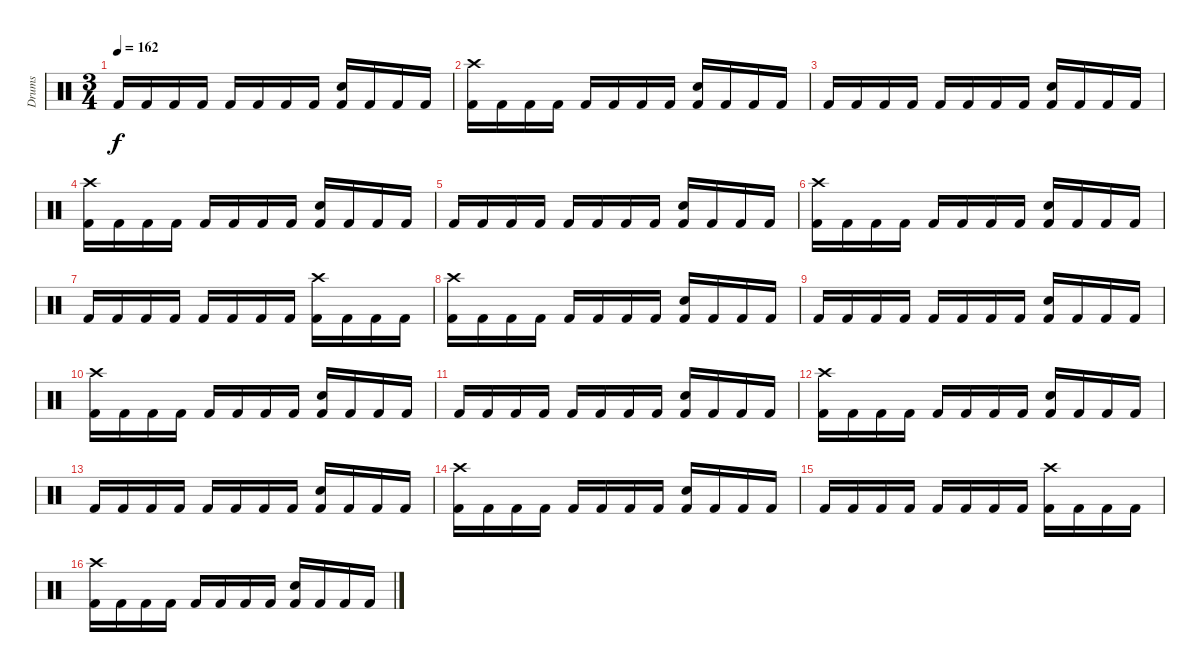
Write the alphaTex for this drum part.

\track ("Drums" "Drums") {instrument percussion}
\staff {score}
\articulation defaults
\ts (3 4)
\tempo 162
\clef neutral
\ks c "Kick (hit) 2".16{dy f} "Kick (hit) 2".16 "Kick (hit) 2".16 "Kick (hit) 2".16 "Kick (hit) 2".16 "Kick (hit) 2".16 "Kick (hit) 2".16 "Kick (hit) 2".16
("Snare (hit) 2" "Kick (hit) 2").16 "Kick (hit) 2".16 "Kick (hit) 2".16 "Kick (hit) 2".16 |
("Crash high (hit)" "Kick (hit) 2").16 "Kick (hit) 2".16 "Kick (hit) 2".16 "Kick (hit) 2".16 "Kick (hit) 2".16 "Kick (hit) 2".16 "Kick (hit) 2".16 "Kick (hit) 2".16 ("Snare (hit) 2" "Kick (hit) 2").16 "Kick (hit) 2".16 "Kick (hit) 2".16 "Kick (hit) 2".16 |
"Kick (hit) 2".16 "Kick (hit) 2".16 "Kick (hit) 2".16 "Kick (hit) 2".16 "Kick (hit) 2".16 "Kick (hit) 2".16 "Kick (hit) 2".16 "Kick (hit) 2".16 ("Snare (hit) 2" "Kick (hit) 2").16 "Kick (hit) 2".16 "Kick (hit) 2".16 "Kick (hit) 2".16 |
("Crash high (hit)" "Kick (hit) 2").16 "Kick (hit) 2".16 "Kick (hit) 2".16 "Kick (hit) 2".16 "Kick (hit) 2".16 "Kick (hit) 2".16 "Kick (hit) 2".16 "Kick (hit) 2".16 ("Snare (hit) 2" "Kick (hit) 2").16 "Kick (hit) 2".16 "Kick (hit) 2".16 "Kick (hit) 2".16 |
"Kick (hit) 2".16 "Kick (hit) 2".16 "Kick (hit) 2".16 "Kick (hit) 2".16 "Kick (hit) 2".16 "Kick (hit) 2".16 "Kick (hit) 2".16 "Kick (hit) 2".16 ("Snare (hit) 2" "Kick (hit) 2").16 "Kick (hit) 2".16 "Kick (hit) 2".16 "Kick (hit) 2".16 |
("Crash high (hit)" "Kick (hit) 2").16 "Kick (hit) 2".16 "Kick (hit) 2".16 "Kick (hit) 2".16 "Kick (hit) 2".16 "Kick (hit) 2".16 "Kick (hit) 2".16 "Kick (hit) 2".16 ("Snare (hit) 2" "Kick (hit) 2").16 "Kick (hit) 2".16 "Kick (hit) 2".16 "Kick (hit) 2".16 |
"Kick (hit) 2".16 "Kick (hit) 2".16 "Kick (hit) 2".16 "Kick (hit) 2".16 "Kick (hit) 2".16 "Kick (hit) 2".16 "Kick (hit) 2".16 "Kick (hit) 2".16 ("Crash high (hit)" "Kick (hit) 2").16 "Kick (hit) 2".16 "Kick (hit) 2".16 "Kick (hit) 2".16 |
("Crash high (hit)" "Kick (hit) 2").16 "Kick (hit) 2".16 "Kick (hit) 2".16 "Kick (hit) 2".16 "Kick (hit) 2".16 "Kick (hit) 2".16 "Kick (hit) 2".16 "Kick (hit) 2".16 ("Snare (hit) 2" "Kick (hit) 2").16 "Kick (hit) 2".16 "Kick (hit) 2".16 "Kick (hit) 2".16 |
"Kick (hit) 2".16 "Kick (hit) 2".16 "Kick (hit) 2".16 "Kick (hit) 2".16 "Kick (hit) 2".16 "Kick (hit) 2".16 "Kick (hit) 2".16 "Kick (hit) 2".16 ("Snare (hit) 2" "Kick (hit) 2").16 "Kick (hit) 2".16 "Kick (hit) 2".16 "Kick (hit) 2".16 |
("Crash high (hit)" "Kick (hit) 2").16 "Kick (hit) 2".16 "Kick (hit) 2".16 "Kick (hit) 2".16 "Kick (hit) 2".16 "Kick (hit) 2".16 "Kick (hit) 2".16 "Kick (hit) 2".16 ("Snare (hit) 2" "Kick (hit) 2").16 "Kick (hit) 2".16 "Kick (hit) 2".16 "Kick (hit) 2".16 |
"Kick (hit) 2".16 "Kick (hit) 2".16 "Kick (hit) 2".16 "Kick (hit) 2".16 "Kick (hit) 2".16 "Kick (hit) 2".16 "Kick (hit) 2".16 "Kick (hit) 2".16 ("Snare (hit) 2" "Kick (hit) 2").16 "Kick (hit) 2".16 "Kick (hit) 2".16 "Kick (hit) 2".16 |
("Crash high (hit)" "Kick (hit) 2").16 "Kick (hit) 2".16 "Kick (hit) 2".16 "Kick (hit) 2".16 "Kick (hit) 2".16 "Kick (hit) 2".16 "Kick (hit) 2".16 "Kick (hit) 2".16 ("Snare (hit) 2" "Kick (hit) 2").16 "Kick (hit) 2".16 "Kick (hit) 2".16 "Kick (hit) 2".16 |
"Kick (hit) 2".16 "Kick (hit) 2".16 "Kick (hit) 2".16 "Kick (hit) 2".16 "Kick (hit) 2".16 "Kick (hit) 2".16 "Kick (hit) 2".16 "Kick (hit) 2".16 ("Snare (hit) 2" "Kick (hit) 2").16 "Kick (hit) 2".16 "Kick (hit) 2".16 "Kick (hit) 2".16 |
("Crash high (hit)" "Kick (hit) 2").16 "Kick (hit) 2".16 "Kick (hit) 2".16 "Kick (hit) 2".16 "Kick (hit) 2".16 "Kick (hit) 2".16 "Kick (hit) 2".16 "Kick (hit) 2".16 ("Snare (hit) 2" "Kick (hit) 2").16 "Kick (hit) 2".16 "Kick (hit) 2".16 "Kick (hit) 2".16 |
"Kick (hit) 2".16 "Kick (hit) 2".16 "Kick (hit) 2".16 "Kick (hit) 2".16 "Kick (hit) 2".16 "Kick (hit) 2".16 "Kick (hit) 2".16 "Kick (hit) 2".16 ("Crash high (hit)" "Kick (hit) 2").16 "Kick (hit) 2".16 "Kick (hit) 2".16 "Kick (hit) 2".16 |
("Crash high (hit)" "Kick (hit) 2").16 "Kick (hit) 2".16 "Kick (hit) 2".16 "Kick (hit) 2".16 "Kick (hit) 2".16 "Kick (hit) 2".16 "Kick (hit) 2".16 "Kick (hit) 2".16 ("Snare (hit) 2" "Kick (hit) 2").16 "Kick (hit) 2".16 "Kick (hit) 2".16 "Kick (hit) 2".16
